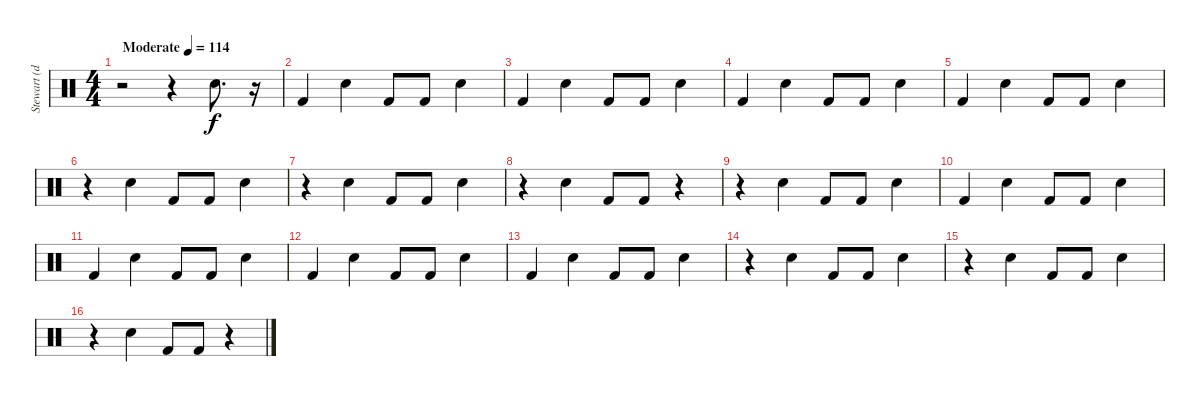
\track ("Stewart (drums)" "Stewart (d") {instrument percussion}
\staff {score}
\articulation defaults
\ts (4 4)
\tempo (114 "Moderate")
\clef neutral
\ks c
r.2{dy f} r.4 "Snare (hit) 2".8{d} r.16 |
"Kick (hit) 2".4 "Snare (hit) 2".4 "Kick (hit) 2".8 "Kick (hit) 2".8 "Snare (hit) 2".4 |
"Kick (hit) 2".4 "Snare (hit) 2".4 "Kick (hit) 2".8 "Kick (hit) 2".8 "Snare (hit) 2".4 |
"Kick (hit) 2".4 "Snare (hit) 2".4 "Kick (hit) 2".8 "Kick (hit) 2".8 "Snare (hit) 2".4 |
"Kick (hit) 2".4 "Snare (hit) 2".4 "Kick (hit) 2".8 "Kick (hit) 2".8 "Snare (hit) 2".4 |
r.4 "Snare (hit) 2".4 "Kick (hit) 2".8 "Kick (hit) 2".8 "Snare (hit) 2".4 |
r.4 "Snare (hit) 2".4 "Kick (hit) 2".8 "Kick (hit) 2".8 "Snare (hit) 2".4 |
r.4 "Snare (hit) 2".4 "Kick (hit) 2".8 "Kick (hit) 2".8 r.4 |
r.4 "Snare (hit) 2".4 "Kick (hit) 2".8 "Kick (hit) 2".8 "Snare (hit) 2".4 |
"Kick (hit) 2".4 "Snare (hit) 2".4 "Kick (hit) 2".8 "Kick (hit) 2".8 "Snare (hit) 2".4 |
"Kick (hit) 2".4 "Snare (hit) 2".4 "Kick (hit) 2".8 "Kick (hit) 2".8 "Snare (hit) 2".4 |
"Kick (hit) 2".4 "Snare (hit) 2".4 "Kick (hit) 2".8 "Kick (hit) 2".8 "Snare (hit) 2".4 |
"Kick (hit) 2".4 "Snare (hit) 2".4 "Kick (hit) 2".8 "Kick (hit) 2".8 "Snare (hit) 2".4 |
r.4 "Snare (hit) 2".4 "Kick (hit) 2".8 "Kick (hit) 2".8 "Snare (hit) 2".4 |
r.4 "Snare (hit) 2".4 "Kick (hit) 2".8 "Kick (hit) 2".8 "Snare (hit) 2".4 |
r.4 "Snare (hit) 2".4 "Kick (hit) 2".8 "Kick (hit) 2".8 r.4
